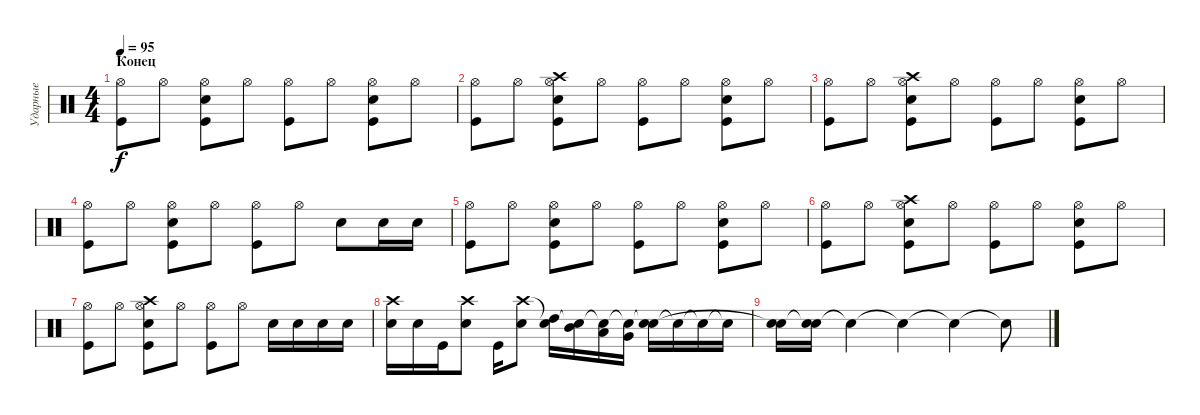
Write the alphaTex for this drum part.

\track ("Ударные" "Ударные") {instrument percussion}
\staff {score}
\articulation defaults
\ts (4 4)
\section ("" "Конец")
\tempo 95
\clef neutral
\ks c
("Hi-Hat (open)" "Kick (hit)").8{dy f} "Hi-Hat (open)".8 ("Electric Snare (hit)" "Hi-Hat (open)" "Kick (hit)").8 "Hi-Hat (open)".8 ("Hi-Hat (open)" "Kick (hit)").8 "Hi-Hat (open)".8 ("Electric Snare (hit)" "Hi-Hat (open)" "Kick (hit)").8 "Hi-Hat (open)".8 |
("Hi-Hat (open)" "Kick (hit)").8 "Hi-Hat (open)".8 ("Electric Snare (hit)" "Crash high (hit)" "Hi-Hat (open)" "Kick (hit)").8 "Hi-Hat (open)".8 ("Hi-Hat (open)" "Kick (hit)").8 "Hi-Hat (open)".8 ("Electric Snare (hit)" "Hi-Hat (open)" "Kick (hit)").8 "Hi-Hat (open)".8 |
("Hi-Hat (open)" "Kick (hit)").8 "Hi-Hat (open)".8 ("Electric Snare (hit)" "Crash high (hit)" "Hi-Hat (open)" "Kick (hit)").8 "Hi-Hat (open)".8 ("Hi-Hat (open)" "Kick (hit)").8 "Hi-Hat (open)".8 ("Electric Snare (hit)" "Hi-Hat (open)" "Kick (hit)").8 "Hi-Hat (open)".8 |
("Hi-Hat (open)" "Kick (hit)").8 "Hi-Hat (open)".8 ("Electric Snare (hit)" "Hi-Hat (open)" "Kick (hit)").8 "Hi-Hat (open)".8 ("Hi-Hat (open)" "Kick (hit)").8 "Hi-Hat (open)".8 "Electric Snare (hit)".8 "Electric Snare (hit)".16 "Electric Snare (hit)".16 |
("Hi-Hat (open)" "Kick (hit)").8 "Hi-Hat (open)".8 ("Electric Snare (hit)" "Hi-Hat (open)" "Kick (hit)").8 "Hi-Hat (open)".8 ("Hi-Hat (open)" "Kick (hit)").8 "Hi-Hat (open)".8 ("Electric Snare (hit)" "Hi-Hat (open)" "Kick (hit)").8 "Hi-Hat (open)".8 |
("Hi-Hat (open)" "Kick (hit)").8 "Hi-Hat (open)".8 ("Electric Snare (hit)" "Crash high (hit)" "Hi-Hat (open)" "Kick (hit)").8 "Hi-Hat (open)".8 ("Hi-Hat (open)" "Kick (hit)").8 "Hi-Hat (open)".8 ("Electric Snare (hit)" "Hi-Hat (open)" "Kick (hit)").8 "Hi-Hat (open)".8 |
("Hi-Hat (open)" "Kick (hit)").8 "Hi-Hat (open)".8 ("Electric Snare (hit)" "Crash high (hit)" "Hi-Hat (open)" "Kick (hit)").8 "Hi-Hat (open)".8 ("Hi-Hat (open)" "Kick (hit)").8 "Hi-Hat (open)".8 "Electric Snare (hit)".16 "Electric Snare (hit)".16 "Electric Snare (hit)".16 "Electric Snare (hit)".16 |
("Snare (hit) 2" "Crash high (hit)").16 "Snare (hit) 2".16 "Kick (hit)".16 ("Electric Snare (hit)" "Crash high (hit)").8 "Kick (hit)".16 ("Electric Snare (hit)" "Crash high (hit)").8 ("High Tom (hit)" "Snare (hit)"{t}).16 ("Mid Tom (hit)" "Snare (hit)"{t}).16 ("Low Tom (hit)" "Snare (hit)"{t}).16 ("Very Low Tom (hit)" "Snare (hit)"{t}).16 ("Snare (hit) 2" "Snare (hit)"{t}).16 "Snare (hit)"{t}.16 "Snare (hit)"{t}.16 "Snare (hit)"{t}.16 |
("Electric Snare (hit)" "Snare (hit)"{t}).16 ("Electric Snare (hit)" "Snare (hit)"{t}).16 "Snare (hit)"{t}.4 "Snare (hit)"{t}.4 "Snare (hit)"{t}.4 "Snare (hit)"{t}.8
